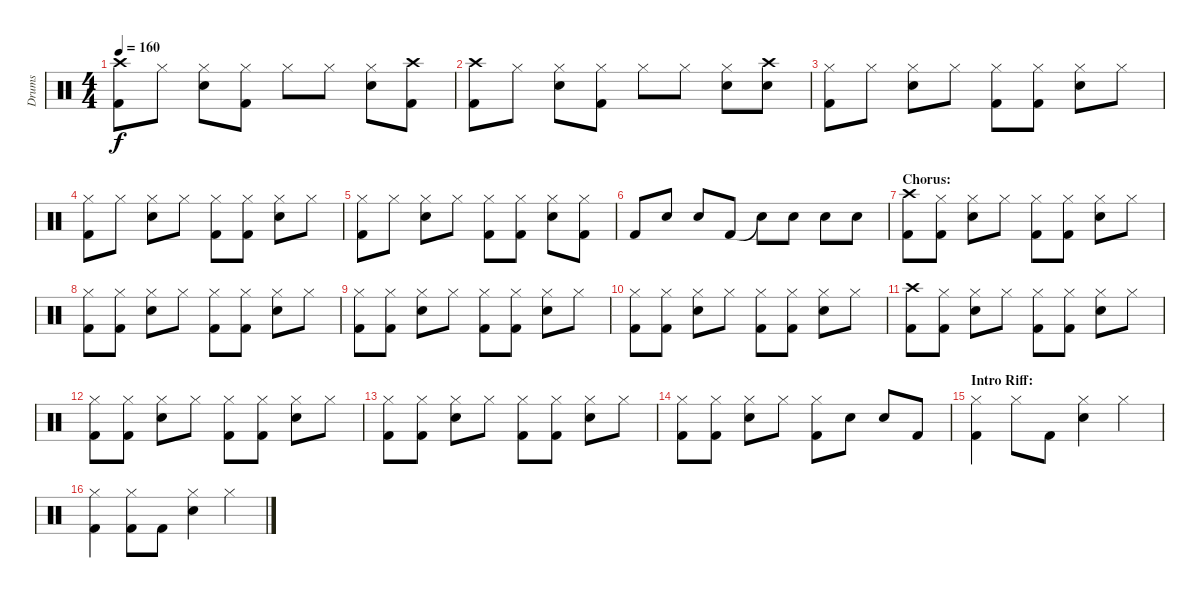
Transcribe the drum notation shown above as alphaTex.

\track ("Drums" "Drums") {instrument percussion}
\staff {score}
\articulation defaults
\ts (4 4)
\tempo 160
\clef neutral
\ks c
("Crash high (hit)" "Kick (hit) 2").8{dy f} "Hi-Hat (closed)".8 ("Hi-Hat (closed)" "Electric Snare (hit)").8 ("Hi-Hat (closed)" "Kick (hit) 2").8 "Hi-Hat (closed)".8 "Hi-Hat (closed)".8 ("Hi-Hat (closed)" "Electric Snare (hit)").8 ("Crash high (hit)" "Kick (hit) 2").8 |
("Crash high (hit)" "Kick (hit) 2").8 "Hi-Hat (closed)".8 ("Hi-Hat (closed)" "Electric Snare (hit)").8 ("Hi-Hat (closed)" "Kick (hit) 2").8 "Hi-Hat (closed)".8 "Hi-Hat (closed)".8 ("Hi-Hat (closed)" "Electric Snare (hit)").8 ("Crash high (hit)" "Electric Snare (hit)").8 |
("Hi-Hat (closed)" "Kick (hit) 2").8 "Hi-Hat (closed)".8 ("Hi-Hat (closed)" "Electric Snare (hit)").8 "Hi-Hat (closed)".8 ("Hi-Hat (closed)" "Kick (hit) 2").8 ("Hi-Hat (closed)" "Kick (hit) 2").8 ("Hi-Hat (closed)" "Electric Snare (hit)").8 "Hi-Hat (closed)".8 |
("Hi-Hat (closed)" "Kick (hit) 2").8 "Hi-Hat (closed)".8 ("Hi-Hat (closed)" "Electric Snare (hit)").8 "Hi-Hat (closed)".8 ("Hi-Hat (closed)" "Kick (hit) 2").8 ("Hi-Hat (closed)" "Kick (hit) 2").8 ("Hi-Hat (closed)" "Electric Snare (hit)").8 "Hi-Hat (closed)".8 |
("Hi-Hat (closed)" "Kick (hit) 2").8 "Hi-Hat (closed)".8 ("Hi-Hat (closed)" "Electric Snare (hit)").8 "Hi-Hat (closed)".8 ("Hi-Hat (closed)" "Kick (hit) 2").8 ("Hi-Hat (closed)" "Kick (hit) 2").8 ("Hi-Hat (closed)" "Electric Snare (hit)").8 ("Hi-Hat (closed)" "Kick (hit) 2").8 |
"Kick (hit) 2".8 "Electric Snare (hit)".8 "Electric Snare (hit)".8 "Kick (hit) 2".8 "Snare (hit)"{t}.8 "Electric Snare (hit)".8 "Electric Snare (hit)".8 "Electric Snare (hit)".8 |
\section ("" "Chorus:")
("Crash high (hit)" "Kick (hit) 2").8 ("Hi-Hat (closed)" "Kick (hit) 2").8 ("Hi-Hat (closed)" "Electric Snare (hit)").8 "Hi-Hat (closed)".8 ("Hi-Hat (closed)" "Kick (hit) 2").8 ("Hi-Hat (closed)" "Kick (hit) 2").8 ("Hi-Hat (closed)" "Electric Snare (hit)").8 "Hi-Hat (closed)".8 |
("Hi-Hat (closed)" "Kick (hit) 2").8 ("Hi-Hat (closed)" "Kick (hit) 2").8 ("Hi-Hat (closed)" "Electric Snare (hit)").8 "Hi-Hat (closed)".8 ("Hi-Hat (closed)" "Kick (hit) 2").8 ("Hi-Hat (closed)" "Kick (hit) 2").8 ("Hi-Hat (closed)" "Electric Snare (hit)").8 "Hi-Hat (closed)".8 |
("Hi-Hat (closed)" "Kick (hit) 2").8 ("Hi-Hat (closed)" "Kick (hit) 2").8 ("Hi-Hat (closed)" "Electric Snare (hit)").8 "Hi-Hat (closed)".8 ("Hi-Hat (closed)" "Kick (hit) 2").8 ("Hi-Hat (closed)" "Kick (hit) 2").8 ("Hi-Hat (closed)" "Electric Snare (hit)").8 "Hi-Hat (closed)".8 |
("Hi-Hat (closed)" "Kick (hit) 2").8 ("Hi-Hat (closed)" "Kick (hit) 2").8 ("Hi-Hat (closed)" "Electric Snare (hit)").8 "Hi-Hat (closed)".8 ("Hi-Hat (closed)" "Kick (hit) 2").8 ("Hi-Hat (closed)" "Kick (hit) 2").8 ("Hi-Hat (closed)" "Electric Snare (hit)").8 "Hi-Hat (closed)".8 |
("Crash high (hit)" "Kick (hit) 2").8 ("Hi-Hat (closed)" "Kick (hit) 2").8 ("Hi-Hat (closed)" "Electric Snare (hit)").8 "Hi-Hat (closed)".8 ("Hi-Hat (closed)" "Kick (hit) 2").8 ("Hi-Hat (closed)" "Kick (hit) 2").8 ("Hi-Hat (closed)" "Electric Snare (hit)").8 "Hi-Hat (closed)".8 |
("Hi-Hat (closed)" "Kick (hit) 2").8 ("Hi-Hat (closed)" "Kick (hit) 2").8 ("Hi-Hat (closed)" "Electric Snare (hit)").8 "Hi-Hat (closed)".8 ("Hi-Hat (closed)" "Kick (hit) 2").8 ("Hi-Hat (closed)" "Kick (hit) 2").8 ("Hi-Hat (closed)" "Electric Snare (hit)").8 "Hi-Hat (closed)".8 |
("Hi-Hat (closed)" "Kick (hit) 2").8 ("Hi-Hat (closed)" "Kick (hit) 2").8 ("Hi-Hat (closed)" "Electric Snare (hit)").8 "Hi-Hat (closed)".8 ("Hi-Hat (closed)" "Kick (hit) 2").8 ("Hi-Hat (closed)" "Kick (hit) 2").8 ("Hi-Hat (closed)" "Electric Snare (hit)").8 "Hi-Hat (closed)".8 |
("Hi-Hat (closed)" "Kick (hit) 2").8 ("Hi-Hat (closed)" "Kick (hit) 2").8 ("Hi-Hat (closed)" "Electric Snare (hit)").8 "Hi-Hat (closed)".8 ("Hi-Hat (closed)" "Kick (hit) 2").8 "Electric Snare (hit)".8 "Electric Snare (hit)".8 "Kick (hit) 2".8 |
\section ("" "Intro Riff:")
("Hi-Hat (closed)" "Kick (hit) 2").4 "Hi-Hat (closed)".8 "Kick (hit) 2".8 ("Hi-Hat (closed)" "Electric Snare (hit)").4 "Hi-Hat (closed)".4 |
("Hi-Hat (closed)" "Kick (hit) 2").4 ("Hi-Hat (closed)" "Kick (hit) 2").8 "Kick (hit) 2".8 ("Hi-Hat (closed)" "Electric Snare (hit)").4 "Hi-Hat (closed)".4
